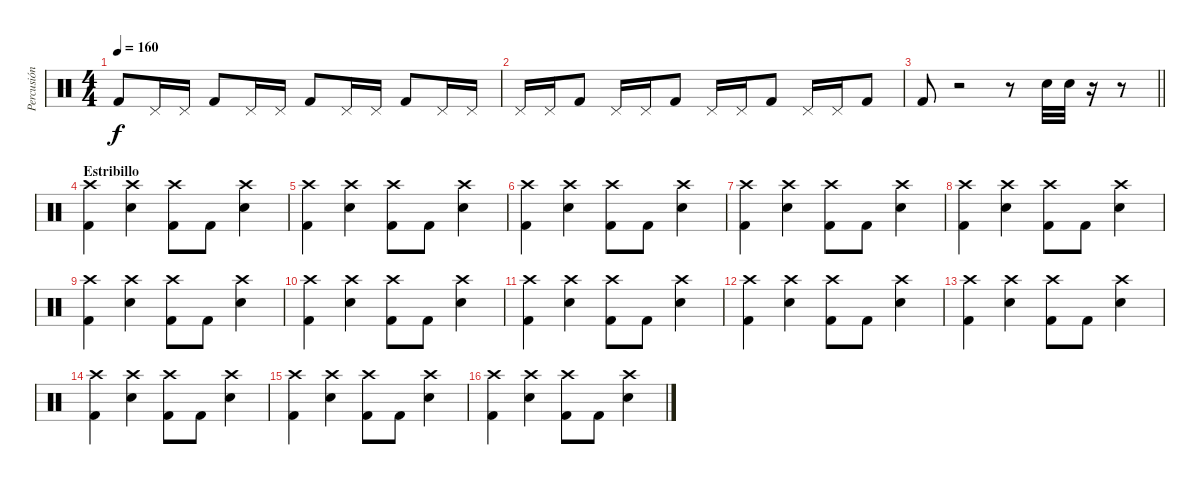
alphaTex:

\track ("Percusión" "Percusión") {instrument percussion}
\staff {score}
\articulation defaults
\ts (4 4)
\tempo 160
\clef neutral
\ks c "Kick (hit) 2".8{dy f} "Pedal Hi-Hat (hit)".16 "Pedal Hi-Hat (hit)".16 "Kick (hit) 2".8 "Pedal Hi-Hat (hit)".16 "Pedal Hi-Hat (hit)".16 "Kick (hit) 2".8 "Pedal Hi-Hat (hit)".16 "Pedal Hi-Hat (hit)".16 "Kick (hit) 2".8 "Pedal Hi-Hat (hit)".16 "Pedal Hi-Hat (hit)".16
|
"Pedal Hi-Hat (hit)".16 "Pedal Hi-Hat (hit)".16 "Kick (hit) 2".8 "Pedal Hi-Hat (hit)".16 "Pedal Hi-Hat (hit)".16 "Kick (hit) 2".8 "Pedal Hi-Hat (hit)".16 "Pedal Hi-Hat (hit)".16 "Kick (hit) 2".8 "Pedal Hi-Hat (hit)".16 "Pedal Hi-Hat (hit)".16 "Kick (hit) 2".8 |
\barLineRight lightlight "Kick (hit) 2".8
r.2 r.8 "Electric Snare (hit)".32 "Electric Snare (hit)".32 r.16 r.8 |
\section ("" "Estribillo")
("Crash high (hit)" "Kick (hit) 2").4 ("Crash high (hit)" "Electric Snare (hit)").4 ("Crash high (hit)" "Kick (hit) 2").8 "Kick (hit) 2".8 ("Crash high (hit)" "Electric Snare (hit)").4 |
("Crash high (hit)" "Kick (hit) 2").4 ("Crash high (hit)" "Electric Snare (hit)").4 ("Crash high (hit)" "Kick (hit) 2").8 "Kick (hit) 2".8 ("Crash high (hit)" "Electric Snare (hit)").4 |
("Crash high (hit)" "Kick (hit) 2").4 ("Crash high (hit)" "Electric Snare (hit)").4 ("Crash high (hit)" "Kick (hit) 2").8 "Kick (hit) 2".8 ("Crash high (hit)" "Electric Snare (hit)").4 |
("Crash high (hit)" "Kick (hit) 2").4 ("Crash high (hit)" "Electric Snare (hit)").4 ("Crash high (hit)" "Kick (hit) 2").8 "Kick (hit) 2".8 ("Crash high (hit)" "Electric Snare (hit)").4 |
("Crash high (hit)" "Kick (hit) 2").4 ("Crash high (hit)" "Electric Snare (hit)").4 ("Crash high (hit)" "Kick (hit) 2").8 "Kick (hit) 2".8 ("Crash high (hit)" "Electric Snare (hit)").4 |
("Crash high (hit)" "Kick (hit) 2").4 ("Crash high (hit)" "Electric Snare (hit)").4 ("Crash high (hit)" "Kick (hit) 2").8 "Kick (hit) 2".8 ("Crash high (hit)" "Electric Snare (hit)").4 |
("Crash high (hit)" "Kick (hit) 2").4 ("Crash high (hit)" "Electric Snare (hit)").4 ("Crash high (hit)" "Kick (hit) 2").8 "Kick (hit) 2".8 ("Crash high (hit)" "Electric Snare (hit)").4 |
("Crash high (hit)" "Kick (hit) 2").4 ("Crash high (hit)" "Electric Snare (hit)").4 ("Crash high (hit)" "Kick (hit) 2").8 "Kick (hit) 2".8 ("Crash high (hit)" "Electric Snare (hit)").4 |
("Crash high (hit)" "Kick (hit) 2").4 ("Crash high (hit)" "Electric Snare (hit)").4 ("Crash high (hit)" "Kick (hit) 2").8 "Kick (hit) 2".8 ("Crash high (hit)" "Electric Snare (hit)").4 |
("Crash high (hit)" "Kick (hit) 2").4 ("Crash high (hit)" "Electric Snare (hit)").4 ("Crash high (hit)" "Kick (hit) 2").8 "Kick (hit) 2".8 ("Crash high (hit)" "Electric Snare (hit)").4 |
("Crash high (hit)" "Kick (hit) 2").4 ("Crash high (hit)" "Electric Snare (hit)").4 ("Crash high (hit)" "Kick (hit) 2").8 "Kick (hit) 2".8 ("Crash high (hit)" "Electric Snare (hit)").4 |
("Crash high (hit)" "Kick (hit) 2").4 ("Crash high (hit)" "Electric Snare (hit)").4 ("Crash high (hit)" "Kick (hit) 2").8 "Kick (hit) 2".8 ("Crash high (hit)" "Electric Snare (hit)").4 |
("Crash high (hit)" "Kick (hit) 2").4 ("Crash high (hit)" "Electric Snare (hit)").4 ("Crash high (hit)" "Kick (hit) 2").8 "Kick (hit) 2".8 ("Crash high (hit)" "Electric Snare (hit)").4
